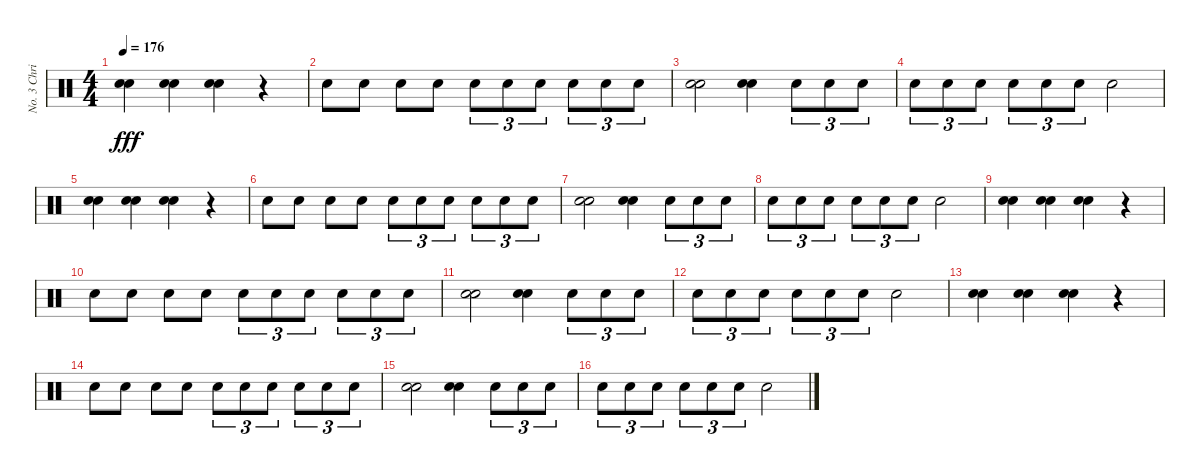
\track ("No. 3 Chris" "No. 3 Chri") {instrument percussion}
\staff {score}
\articulation defaults
\ts (4 4)
\tempo 176
\clef neutral
\ks c
("Electric Snare (hit)" "Electric Snare (hit)").4{dy fff} ("Electric Snare (hit)" "Electric Snare (hit)").4 ("Electric Snare (hit)" "Electric Snare (hit)").4 r.4 |
"Electric Snare (hit)".8 "Electric Snare (hit)".8 "Electric Snare (hit)".8 "Electric Snare (hit)".8 "Electric Snare (hit)".8{tu (3 2)} "Electric Snare (hit)".8{tu (3 2)} "Electric Snare (hit)".8{tu (3 2)} "Electric Snare (hit)".8{tu (3 2)} "Electric Snare (hit)".8{tu (3 2)} "Electric Snare (hit)".8{tu (3 2)} |
("Electric Snare (hit)" "Electric Snare (hit)").2 ("Electric Snare (hit)" "Electric Snare (hit)").4 "Electric Snare (hit)".8{tu (3 2)} "Electric Snare (hit)".8{tu (3 2)} "Electric Snare (hit)".8{tu (3 2)} |
"Electric Snare (hit)".8{tu (3 2)} "Electric Snare (hit)".8{tu (3 2)} "Electric Snare (hit)".8{tu (3 2)} "Electric Snare (hit)".8{tu (3 2)} "Electric Snare (hit)".8{tu (3 2)} "Electric Snare (hit)".8{tu (3 2)} "Electric Snare (hit)".2 |
("Electric Snare (hit)" "Electric Snare (hit)").4 ("Electric Snare (hit)" "Electric Snare (hit)").4 ("Electric Snare (hit)" "Electric Snare (hit)").4 r.4 |
"Electric Snare (hit)".8 "Electric Snare (hit)".8 "Electric Snare (hit)".8 "Electric Snare (hit)".8 "Electric Snare (hit)".8{tu (3 2)} "Electric Snare (hit)".8{tu (3 2)} "Electric Snare (hit)".8{tu (3 2)} "Electric Snare (hit)".8{tu (3 2)} "Electric Snare (hit)".8{tu (3 2)} "Electric Snare (hit)".8{tu (3 2)} |
("Electric Snare (hit)" "Electric Snare (hit)").2 ("Electric Snare (hit)" "Electric Snare (hit)").4 "Electric Snare (hit)".8{tu (3 2)} "Electric Snare (hit)".8{tu (3 2)} "Electric Snare (hit)".8{tu (3 2)} |
"Electric Snare (hit)".8{tu (3 2)} "Electric Snare (hit)".8{tu (3 2)} "Electric Snare (hit)".8{tu (3 2)} "Electric Snare (hit)".8{tu (3 2)} "Electric Snare (hit)".8{tu (3 2)} "Electric Snare (hit)".8{tu (3 2)} "Electric Snare (hit)".2 |
("Electric Snare (hit)" "Electric Snare (hit)").4 ("Electric Snare (hit)" "Electric Snare (hit)").4 ("Electric Snare (hit)" "Electric Snare (hit)").4 r.4 |
"Electric Snare (hit)".8 "Electric Snare (hit)".8 "Electric Snare (hit)".8 "Electric Snare (hit)".8 "Electric Snare (hit)".8{tu (3 2)} "Electric Snare (hit)".8{tu (3 2)} "Electric Snare (hit)".8{tu (3 2)} "Electric Snare (hit)".8{tu (3 2)} "Electric Snare (hit)".8{tu (3 2)} "Electric Snare (hit)".8{tu (3 2)} |
("Electric Snare (hit)" "Electric Snare (hit)").2 ("Electric Snare (hit)" "Electric Snare (hit)").4 "Electric Snare (hit)".8{tu (3 2)} "Electric Snare (hit)".8{tu (3 2)} "Electric Snare (hit)".8{tu (3 2)} |
"Electric Snare (hit)".8{tu (3 2)} "Electric Snare (hit)".8{tu (3 2)} "Electric Snare (hit)".8{tu (3 2)} "Electric Snare (hit)".8{tu (3 2)} "Electric Snare (hit)".8{tu (3 2)} "Electric Snare (hit)".8{tu (3 2)} "Electric Snare (hit)".2 |
("Electric Snare (hit)" "Electric Snare (hit)").4 ("Electric Snare (hit)" "Electric Snare (hit)").4 ("Electric Snare (hit)" "Electric Snare (hit)").4 r.4 |
"Electric Snare (hit)".8 "Electric Snare (hit)".8 "Electric Snare (hit)".8 "Electric Snare (hit)".8 "Electric Snare (hit)".8{tu (3 2)} "Electric Snare (hit)".8{tu (3 2)} "Electric Snare (hit)".8{tu (3 2)} "Electric Snare (hit)".8{tu (3 2)} "Electric Snare (hit)".8{tu (3 2)} "Electric Snare (hit)".8{tu (3 2)} |
("Electric Snare (hit)" "Electric Snare (hit)").2 ("Electric Snare (hit)" "Electric Snare (hit)").4 "Electric Snare (hit)".8{tu (3 2)} "Electric Snare (hit)".8{tu (3 2)} "Electric Snare (hit)".8{tu (3 2)} |
"Electric Snare (hit)".8{tu (3 2)} "Electric Snare (hit)".8{tu (3 2)} "Electric Snare (hit)".8{tu (3 2)} "Electric Snare (hit)".8{tu (3 2)} "Electric Snare (hit)".8{tu (3 2)} "Electric Snare (hit)".8{tu (3 2)} "Electric Snare (hit)".2
